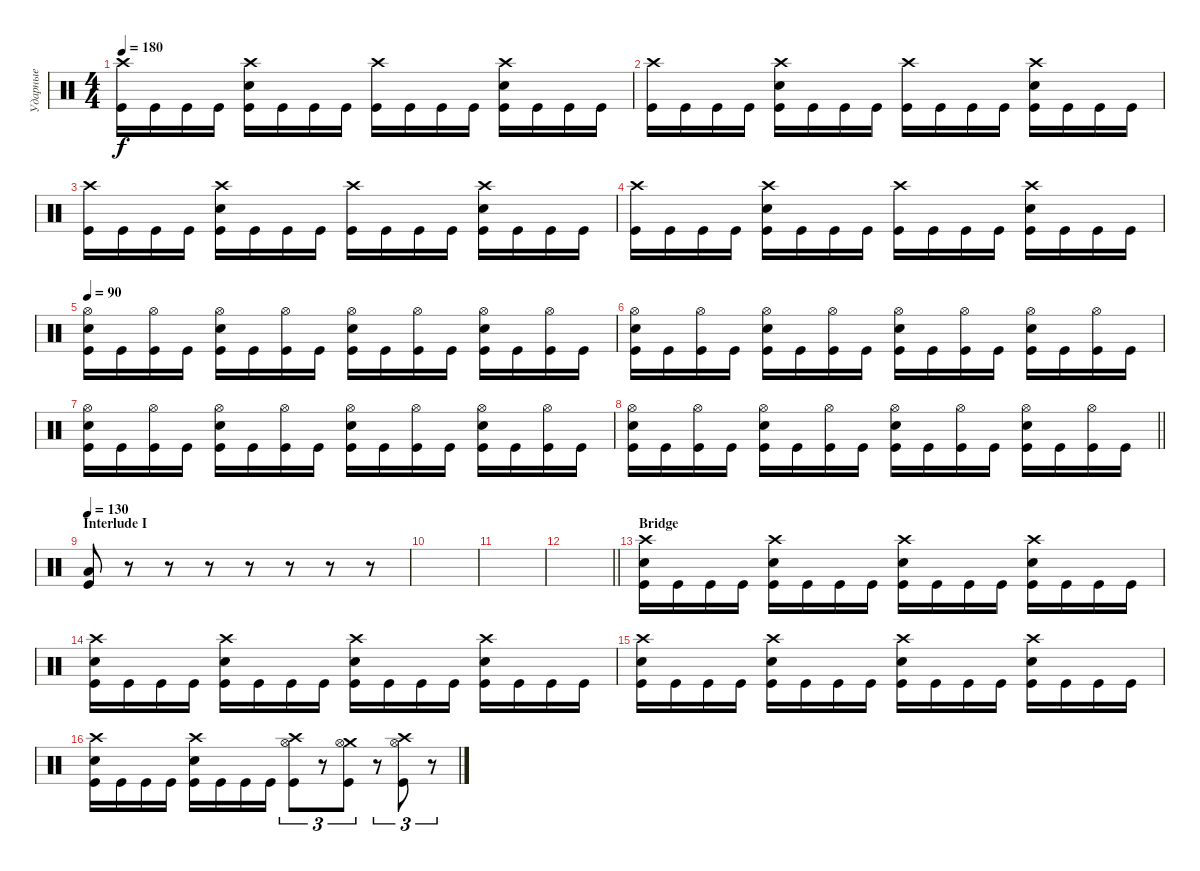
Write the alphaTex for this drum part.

\track ("Ударные" "Ударные") {instrument percussion}
\staff {score}
\articulation defaults
\ts (4 4)
\tempo 180
\clef neutral
\ks c
("Crash high (hit)" "Kick (hit)").16{dy f} "Kick (hit)".16 "Kick (hit)".16 "Kick (hit)".16 ("Crash high (hit)" "Electric Snare (hit)" "Kick (hit)").16 "Kick (hit)".16 "Kick (hit)".16 "Kick (hit)".16 ("Crash high (hit)" "Kick (hit)").16 "Kick (hit)".16 "Kick (hit)".16 "Kick (hit)".16 ("Crash high (hit)" "Electric Snare (hit)" "Kick (hit)").16 "Kick (hit)".16 "Kick (hit)".16 "Kick (hit)".16 |
("Crash high (hit)" "Kick (hit)").16 "Kick (hit)".16 "Kick (hit)".16 "Kick (hit)".16 ("Crash high (hit)" "Electric Snare (hit)" "Kick (hit)").16 "Kick (hit)".16 "Kick (hit)".16 "Kick (hit)".16 ("Crash high (hit)" "Kick (hit)").16 "Kick (hit)".16 "Kick (hit)".16 "Kick (hit)".16 ("Crash high (hit)" "Electric Snare (hit)" "Kick (hit)").16 "Kick (hit)".16 "Kick (hit)".16 "Kick (hit)".16 |
("Crash high (hit)" "Kick (hit)").16 "Kick (hit)".16 "Kick (hit)".16 "Kick (hit)".16 ("Crash high (hit)" "Electric Snare (hit)" "Kick (hit)").16 "Kick (hit)".16 "Kick (hit)".16 "Kick (hit)".16 ("Crash high (hit)" "Kick (hit)").16 "Kick (hit)".16 "Kick (hit)".16 "Kick (hit)".16 ("Crash high (hit)" "Electric Snare (hit)" "Kick (hit)").16 "Kick (hit)".16 "Kick (hit)".16 "Kick (hit)".16 |
("Crash high (hit)" "Kick (hit)").16 "Kick (hit)".16 "Kick (hit)".16 "Kick (hit)".16 ("Crash high (hit)" "Electric Snare (hit)" "Kick (hit)").16 "Kick (hit)".16 "Kick (hit)".16 "Kick (hit)".16 ("Crash high (hit)" "Kick (hit)").16 "Kick (hit)".16 "Kick (hit)".16 "Kick (hit)".16 ("Crash high (hit)" "Electric Snare (hit)" "Kick (hit)").16 "Kick (hit)".16 "Kick (hit)".16 "Kick (hit)".16 |
\tempo 90
("Hi-Hat (open)" "Electric Snare (hit)" "Kick (hit)").16 "Kick (hit)".16 ("Hi-Hat (open)" "Kick (hit)").16 "Kick (hit)".16 ("Hi-Hat (open)" "Electric Snare (hit)" "Kick (hit)").16 "Kick (hit)".16 ("Hi-Hat (open)" "Kick (hit)").16 "Kick (hit)".16 ("Hi-Hat (open)" "Electric Snare (hit)" "Kick (hit)").16 "Kick (hit)".16 ("Hi-Hat (open)" "Kick (hit)").16 "Kick (hit)".16 ("Hi-Hat (open)" "Electric Snare (hit)" "Kick (hit)").16 "Kick (hit)".16 ("Hi-Hat (open)" "Kick (hit)").16 "Kick (hit)".16 |
("Hi-Hat (open)" "Electric Snare (hit)" "Kick (hit)").16 "Kick (hit)".16 ("Hi-Hat (open)" "Kick (hit)").16 "Kick (hit)".16 ("Hi-Hat (open)" "Electric Snare (hit)" "Kick (hit)").16 "Kick (hit)".16 ("Hi-Hat (open)" "Kick (hit)").16 "Kick (hit)".16 ("Hi-Hat (open)" "Electric Snare (hit)" "Kick (hit)").16 "Kick (hit)".16 ("Hi-Hat (open)" "Kick (hit)").16 "Kick (hit)".16 ("Hi-Hat (open)" "Electric Snare (hit)" "Kick (hit)").16 "Kick (hit)".16 ("Hi-Hat (open)" "Kick (hit)").16 "Kick (hit)".16 |
("Hi-Hat (open)" "Electric Snare (hit)" "Kick (hit)").16 "Kick (hit)".16 ("Hi-Hat (open)" "Kick (hit)").16 "Kick (hit)".16 ("Hi-Hat (open)" "Electric Snare (hit)" "Kick (hit)").16 "Kick (hit)".16 ("Hi-Hat (open)" "Kick (hit)").16 "Kick (hit)".16 ("Hi-Hat (open)" "Electric Snare (hit)" "Kick (hit)").16 "Kick (hit)".16 ("Hi-Hat (open)" "Kick (hit)").16 "Kick (hit)".16 ("Hi-Hat (open)" "Electric Snare (hit)" "Kick (hit)").16 "Kick (hit)".16 ("Hi-Hat (open)" "Kick (hit)").16 "Kick (hit)".16 |
\barLineRight lightlight
("Hi-Hat (open)" "Electric Snare (hit)" "Kick (hit)").16 "Kick (hit)".16 ("Hi-Hat (open)" "Kick (hit)").16 "Kick (hit)".16 ("Hi-Hat (open)" "Electric Snare (hit)" "Kick (hit)").16 "Kick (hit)".16 ("Hi-Hat (open)" "Kick (hit)").16 "Kick (hit)".16 ("Hi-Hat (open)" "Electric Snare (hit)" "Kick (hit)").16 "Kick (hit)".16 ("Hi-Hat (open)" "Kick (hit)").16 "Kick (hit)".16 ("Hi-Hat (open)" "Electric Snare (hit)" "Kick (hit)").16 "Kick (hit)".16 ("Hi-Hat (open)" "Kick (hit)").16 "Kick (hit)".16 |
\section ("" "Interlude I")
\tempo 130
("Low Floor Tom (hit)" "Kick (hit)").8 r.8 r.8 r.8 r.8 r.8 r.8 r.8 |
|
|
\barLineRight lightlight
|
\section ("" "Bridge")
("Crash high (hit)" "Electric Snare (hit)" "Kick (hit)").16 "Kick (hit)".16 "Kick (hit)".16 "Kick (hit)".16 ("Crash high (hit)" "Electric Snare (hit)" "Kick (hit)").16 "Kick (hit)".16 "Kick (hit)".16 "Kick (hit)".16 ("Crash high (hit)" "Electric Snare (hit)" "Kick (hit)").16 "Kick (hit)".16 "Kick (hit)".16 "Kick (hit)".16 ("Crash high (hit)" "Electric Snare (hit)" "Kick (hit)").16 "Kick (hit)".16 "Kick (hit)".16 "Kick (hit)".16 |
("Crash high (hit)" "Electric Snare (hit)" "Kick (hit)").16 "Kick (hit)".16 "Kick (hit)".16 "Kick (hit)".16 ("Crash high (hit)" "Electric Snare (hit)" "Kick (hit)").16 "Kick (hit)".16 "Kick (hit)".16 "Kick (hit)".16 ("Crash high (hit)" "Electric Snare (hit)" "Kick (hit)").16 "Kick (hit)".16 "Kick (hit)".16 "Kick (hit)".16 ("Crash high (hit)" "Electric Snare (hit)" "Kick (hit)").16 "Kick (hit)".16 "Kick (hit)".16 "Kick (hit)".16 |
("Crash high (hit)" "Electric Snare (hit)" "Kick (hit)").16 "Kick (hit)".16 "Kick (hit)".16 "Kick (hit)".16 ("Crash high (hit)" "Electric Snare (hit)" "Kick (hit)").16 "Kick (hit)".16 "Kick (hit)".16 "Kick (hit)".16 ("Crash high (hit)" "Electric Snare (hit)" "Kick (hit)").16 "Kick (hit)".16 "Kick (hit)".16 "Kick (hit)".16 ("Crash high (hit)" "Electric Snare (hit)" "Kick (hit)").16 "Kick (hit)".16 "Kick (hit)".16 "Kick (hit)".16 |
("Crash high (hit)" "Electric Snare (hit)" "Kick (hit)").16 "Kick (hit)".16 "Kick (hit)".16 "Kick (hit)".16 ("Crash high (hit)" "Electric Snare (hit)" "Kick (hit)").16 "Kick (hit)".16 "Kick (hit)".16 "Kick (hit)".16 ("Crash high (hit)" "Hi-Hat (open)" "Kick (hit)").8{tu (3 2)} r.8{tu (3 2)} ("Crash medium (hit)" "Hi-Hat (open)" "Kick (hit)").8{tu (3 2)} r.8{tu (3 2)} ("Crash high (hit)" "Hi-Hat (open)" "Kick (hit)").8{tu (3 2)} r.8{tu (3 2)}
